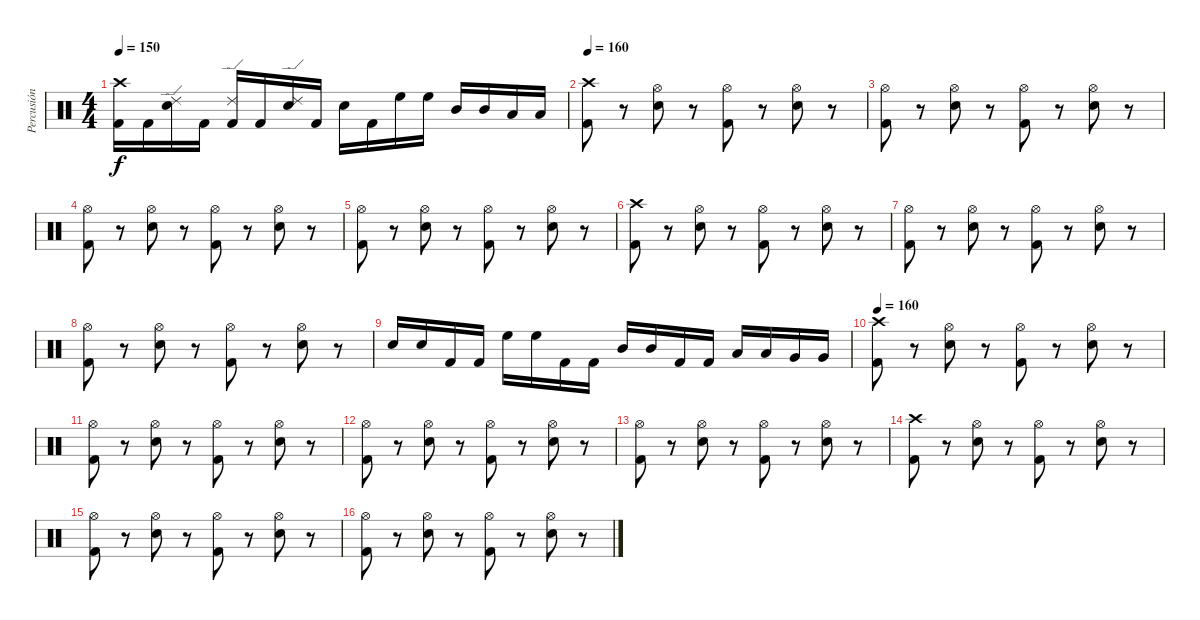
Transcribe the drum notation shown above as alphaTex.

\track ("Percusión" "Percusión") {instrument percussion}
\staff {score}
\articulation defaults
\ts (4 4)
\tempo 150
\clef neutral
\ks c
("Crash high (hit)" "Kick (hit) 2").16{dy f} "Kick (hit) 2".16 ("Ride (edge) 2" "Electric Snare (hit)").16 "Kick (hit) 2".16 ("Ride (edge) 2" "Kick (hit) 2").16 "Kick (hit) 2".16 ("Ride (edge) 2" "Electric Snare (hit)").16 "Kick (hit) 2".16 "Electric Snare (hit)".16 "Kick (hit) 2".16 "High Floor Tom (hit)".16 "High Floor Tom (hit)".16 "Mid Tom (hit)".16 "Mid Tom (hit)".16 "Low Tom (hit)".16 "Low Tom (hit)".16 |
\tempo 160
("Crash high (hit)" "Kick (hit) 2").8 r.8 ("Hi-Hat (open)" "Electric Snare (hit)").8 r.8 ("Hi-Hat (open)" "Kick (hit) 2").8 r.8 ("Hi-Hat (open)" "Electric Snare (hit)").8 r.8 |
("Hi-Hat (open)" "Kick (hit) 2").8 r.8 ("Hi-Hat (open)" "Electric Snare (hit)").8 r.8 ("Hi-Hat (open)" "Kick (hit) 2").8 r.8 ("Hi-Hat (open)" "Electric Snare (hit)").8 r.8 |
("Hi-Hat (open)" "Kick (hit) 2").8 r.8 ("Hi-Hat (open)" "Electric Snare (hit)").8 r.8 ("Hi-Hat (open)" "Kick (hit) 2").8 r.8 ("Hi-Hat (open)" "Electric Snare (hit)").8 r.8 |
("Hi-Hat (open)" "Kick (hit) 2").8 r.8 ("Hi-Hat (open)" "Electric Snare (hit)").8 r.8 ("Hi-Hat (open)" "Kick (hit) 2").8 r.8 ("Hi-Hat (open)" "Electric Snare (hit)").8 r.8 |
("Crash high (hit)" "Kick (hit) 2").8 r.8 ("Hi-Hat (open)" "Electric Snare (hit)").8 r.8 ("Hi-Hat (open)" "Kick (hit) 2").8 r.8 ("Hi-Hat (open)" "Electric Snare (hit)").8 r.8 |
("Hi-Hat (open)" "Kick (hit) 2").8 r.8 ("Hi-Hat (open)" "Electric Snare (hit)").8 r.8 ("Hi-Hat (open)" "Kick (hit) 2").8 r.8 ("Hi-Hat (open)" "Electric Snare (hit)").8 r.8 |
("Hi-Hat (open)" "Kick (hit) 2").8 r.8 ("Hi-Hat (open)" "Electric Snare (hit)").8 r.8 ("Hi-Hat (open)" "Kick (hit) 2").8 r.8 ("Hi-Hat (open)" "Electric Snare (hit)").8 r.8 |
"Electric Snare (hit)".16 "Electric Snare (hit)".16 "Kick (hit) 2".16 "Kick (hit) 2".16 "High Floor Tom (hit)".16 "High Floor Tom (hit)".16 "Kick (hit) 2".16 "Kick (hit) 2".16 "Mid Tom (hit)".16 "Mid Tom (hit)".16 "Kick (hit) 2".16 "Kick (hit) 2".16 "Low Tom (hit)".16 "Low Tom (hit)".16 "Very Low Tom (hit)".16 "Very Low Tom (hit)".16 |
\tempo 160
("Crash high (hit)" "Kick (hit) 2").8 r.8 ("Hi-Hat (open)" "Electric Snare (hit)").8 r.8 ("Hi-Hat (open)" "Kick (hit) 2").8 r.8 ("Hi-Hat (open)" "Electric Snare (hit)").8 r.8 |
("Hi-Hat (open)" "Kick (hit) 2").8 r.8 ("Hi-Hat (open)" "Electric Snare (hit)").8 r.8 ("Hi-Hat (open)" "Kick (hit) 2").8 r.8 ("Hi-Hat (open)" "Electric Snare (hit)").8 r.8 |
("Hi-Hat (open)" "Kick (hit) 2").8 r.8 ("Hi-Hat (open)" "Electric Snare (hit)").8 r.8 ("Hi-Hat (open)" "Kick (hit) 2").8 r.8 ("Hi-Hat (open)" "Electric Snare (hit)").8 r.8 |
("Hi-Hat (open)" "Kick (hit) 2").8 r.8 ("Hi-Hat (open)" "Electric Snare (hit)").8 r.8 ("Hi-Hat (open)" "Kick (hit) 2").8 r.8 ("Hi-Hat (open)" "Electric Snare (hit)").8 r.8 |
("Crash high (hit)" "Kick (hit) 2").8 r.8 ("Hi-Hat (open)" "Electric Snare (hit)").8 r.8 ("Hi-Hat (open)" "Kick (hit) 2").8 r.8 ("Hi-Hat (open)" "Electric Snare (hit)").8 r.8 |
("Hi-Hat (open)" "Kick (hit) 2").8 r.8 ("Hi-Hat (open)" "Electric Snare (hit)").8 r.8 ("Hi-Hat (open)" "Kick (hit) 2").8 r.8 ("Hi-Hat (open)" "Electric Snare (hit)").8 r.8 |
("Hi-Hat (open)" "Kick (hit) 2").8 r.8 ("Hi-Hat (open)" "Electric Snare (hit)").8 r.8 ("Hi-Hat (open)" "Kick (hit) 2").8 r.8 ("Hi-Hat (open)" "Electric Snare (hit)").8 r.8
